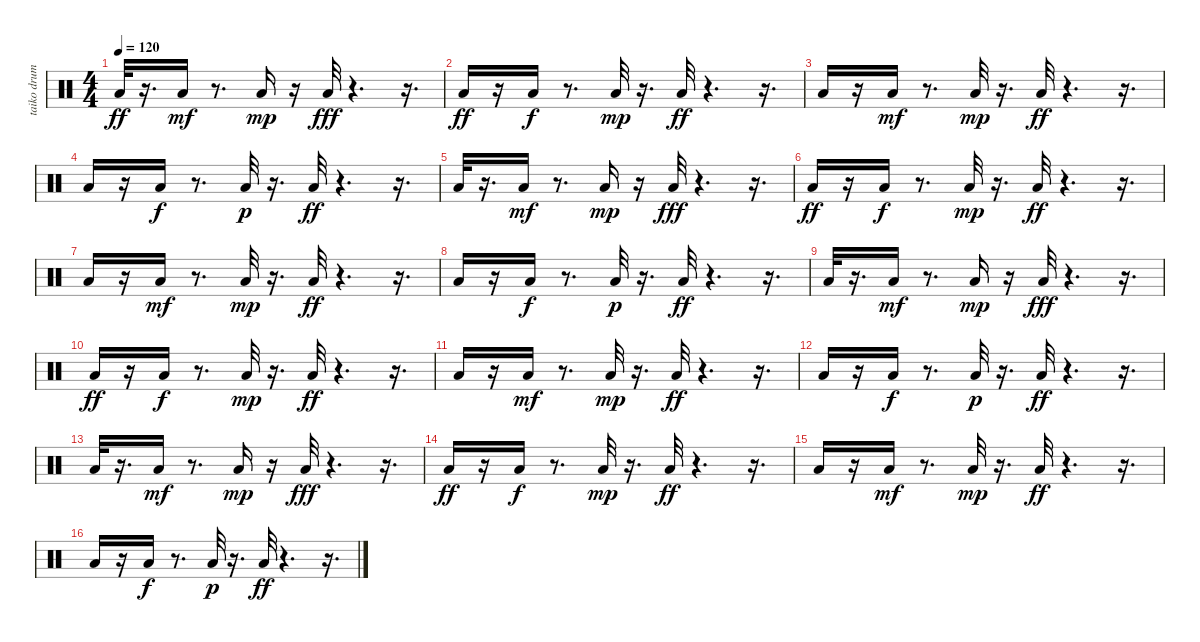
\track ("taiko drum" "taiko drum") {instrument percussion}
\staff {score}
\articulation defaults
\ts (4 4)
\tempo 120
\clef neutral
\ks c "Low Floor Tom (hit)".32{dy ff}
r.16{d} "Low Floor Tom (hit)".16{dy mf} r.8{d} "Low Floor Tom (hit)".16{dy mp} r.16 "Low Floor Tom (hit)".32{dy fff} r.4{d} r.16{d} |
"Low Floor Tom (hit)".16{dy ff} r.16 "Low Floor Tom (hit)".16{dy f} r.8{d} "Low Floor Tom (hit)".32{dy mp} r.16{d} "Low Floor Tom (hit)".32{dy ff} r.4{d} r.16{d} |
"Low Floor Tom (hit)".16 r.16 "Low Floor Tom (hit)".16{dy mf} r.8{d} "Low Floor Tom (hit)".32{dy mp} r.16{d} "Low Floor Tom (hit)".32{dy ff} r.4{d} r.16{d} |
"Low Floor Tom (hit)".16 r.16 "Low Floor Tom (hit)".16{dy f} r.8{d} "Low Floor Tom (hit)".32{dy p} r.16{d} "Low Floor Tom (hit)".32{dy ff} r.4{d} r.16{d} |
"Low Floor Tom (hit)".32 r.16{d} "Low Floor Tom (hit)".16{dy mf} r.8{d} "Low Floor Tom (hit)".16{dy mp} r.16 "Low Floor Tom (hit)".32{dy fff} r.4{d} r.16{d} |
"Low Floor Tom (hit)".16{dy ff} r.16 "Low Floor Tom (hit)".16{dy f} r.8{d} "Low Floor Tom (hit)".32{dy mp} r.16{d} "Low Floor Tom (hit)".32{dy ff} r.4{d} r.16{d} |
"Low Floor Tom (hit)".16 r.16 "Low Floor Tom (hit)".16{dy mf} r.8{d} "Low Floor Tom (hit)".32{dy mp} r.16{d} "Low Floor Tom (hit)".32{dy ff} r.4{d} r.16{d} |
"Low Floor Tom (hit)".16 r.16 "Low Floor Tom (hit)".16{dy f} r.8{d} "Low Floor Tom (hit)".32{dy p} r.16{d} "Low Floor Tom (hit)".32{dy ff} r.4{d} r.16{d} |
"Low Floor Tom (hit)".32 r.16{d} "Low Floor Tom (hit)".16{dy mf} r.8{d} "Low Floor Tom (hit)".16{dy mp} r.16 "Low Floor Tom (hit)".32{dy fff} r.4{d} r.16{d} |
"Low Floor Tom (hit)".16{dy ff} r.16 "Low Floor Tom (hit)".16{dy f} r.8{d} "Low Floor Tom (hit)".32{dy mp} r.16{d} "Low Floor Tom (hit)".32{dy ff} r.4{d} r.16{d} |
"Low Floor Tom (hit)".16 r.16 "Low Floor Tom (hit)".16{dy mf} r.8{d} "Low Floor Tom (hit)".32{dy mp} r.16{d} "Low Floor Tom (hit)".32{dy ff} r.4{d} r.16{d} |
"Low Floor Tom (hit)".16 r.16 "Low Floor Tom (hit)".16{dy f} r.8{d} "Low Floor Tom (hit)".32{dy p} r.16{d} "Low Floor Tom (hit)".32{dy ff} r.4{d} r.16{d} |
"Low Floor Tom (hit)".32 r.16{d} "Low Floor Tom (hit)".16{dy mf} r.8{d} "Low Floor Tom (hit)".16{dy mp} r.16 "Low Floor Tom (hit)".32{dy fff} r.4{d} r.16{d} |
"Low Floor Tom (hit)".16{dy ff} r.16 "Low Floor Tom (hit)".16{dy f} r.8{d} "Low Floor Tom (hit)".32{dy mp} r.16{d} "Low Floor Tom (hit)".32{dy ff} r.4{d} r.16{d} |
"Low Floor Tom (hit)".16 r.16 "Low Floor Tom (hit)".16{dy mf} r.8{d} "Low Floor Tom (hit)".32{dy mp} r.16{d} "Low Floor Tom (hit)".32{dy ff} r.4{d} r.16{d} |
"Low Floor Tom (hit)".16 r.16 "Low Floor Tom (hit)".16{dy f} r.8{d} "Low Floor Tom (hit)".32{dy p} r.16{d} "Low Floor Tom (hit)".32{dy ff} r.4{d} r.16{d}
